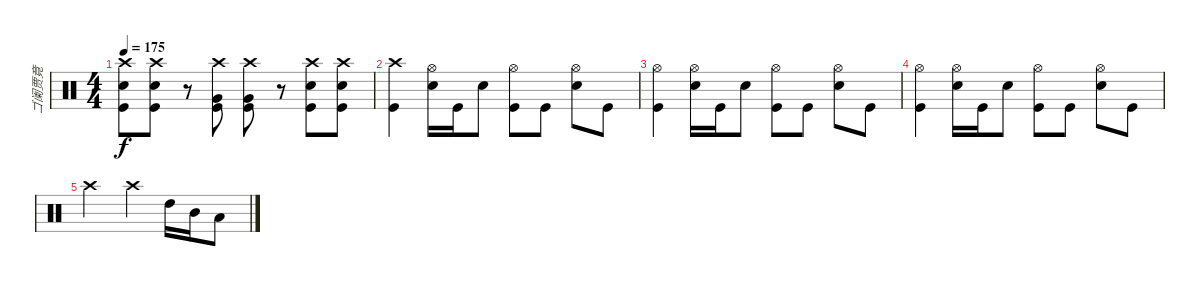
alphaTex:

\track ("ゴ阑贾竟" "ゴ阑贾竟") {instrument percussion}
\staff {score}
\articulation defaults
\ts (4 4)
\tempo 175
\clef neutral
\ks c
("Crash high (hit)" "Kick (hit)" "Snare (hit) 2").8{dy f} ("Crash high (hit)" "Kick (hit)" "Snare (hit) 2").8 r.8 ("Very Low Tom (hit)" "Crash high (hit)" "Kick (hit)").8 ("Very Low Tom (hit)" "Crash high (hit)" "Kick (hit)").8 r.8 ("Crash high (hit)" "Kick (hit)" "Snare (hit) 2").8 ("Crash high (hit)" "Kick (hit)" "Snare (hit) 2").8 |
("Crash high (hit)" "Kick (hit)").4 ("Snare (hit) 2" "Hi-Hat (open)").16 "Kick (hit)".16 "Snare (hit) 2".8 ("Kick (hit)" "Hi-Hat (open)").8 "Kick (hit)".8 ("Snare (hit) 2" "Hi-Hat (open)").8 "Kick (hit)".8 |
("Hi-Hat (open)" "Kick (hit)").4 ("Snare (hit) 2" "Hi-Hat (open)").16 "Kick (hit)".16 "Snare (hit) 2".8 ("Kick (hit)" "Hi-Hat (open)").8 "Kick (hit)".8 ("Snare (hit) 2" "Hi-Hat (open)").8 "Kick (hit)".8 |
("Hi-Hat (open)" "Kick (hit)").4 ("Snare (hit) 2" "Hi-Hat (open)").16 "Kick (hit)".16 "Snare (hit) 2".8 ("Kick (hit)" "Hi-Hat (open)").8 "Kick (hit)".8 ("Snare (hit) 2" "Hi-Hat (open)").8 "Kick (hit)".8 |
"Crash high (hit)".2 "Crash high (hit)".4 "High Tom (hit)".16 "Mid Tom (hit)".16 "Low Tom (hit)".8
